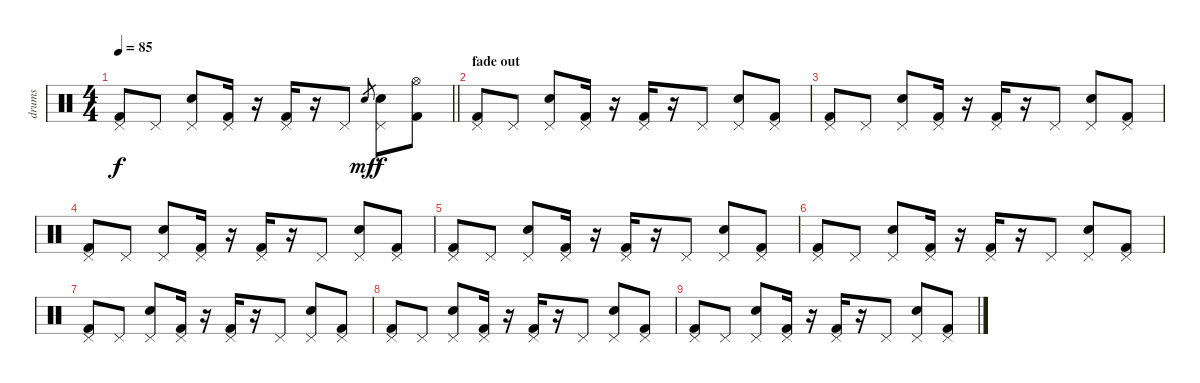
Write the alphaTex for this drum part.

\track ("drums" "drums") {instrument percussion}
\staff {score}
\articulation defaults
\ts (4 4)
\tempo 85
\clef neutral
\barLineRight lightlight
\ks c
("Kick (hit) 2" "Pedal Hi-Hat (hit)").8{dy f} "Pedal Hi-Hat (hit)".8 ("Electric Snare (hit)" "Pedal Hi-Hat (hit)").8 ("Kick (hit) 2" "Pedal Hi-Hat (hit)").16 r.16 ("Kick (hit) 2" "Pedal Hi-Hat (hit)").16 r.16 "Pedal Hi-Hat (hit)".8 "Electric Snare (hit)".8{gr dy mf} ("Electric Snare (hit)" "Pedal Hi-Hat (hit)").8{dy f} ("Kick (hit) 2" "Hi-Hat (open)").8 |
\section ("" "fade out")
("Kick (hit) 2" "Pedal Hi-Hat (hit)").8 "Pedal Hi-Hat (hit)".8 ("Electric Snare (hit)" "Pedal Hi-Hat (hit)").8 ("Kick (hit) 2" "Pedal Hi-Hat (hit)").16 r.16 ("Kick (hit) 2" "Pedal Hi-Hat (hit)").16 r.16 "Pedal Hi-Hat (hit)".8 ("Electric Snare (hit)" "Pedal Hi-Hat (hit)").8 ("Kick (hit) 2" "Pedal Hi-Hat (hit)").8 |
("Kick (hit) 2" "Pedal Hi-Hat (hit)").8 "Pedal Hi-Hat (hit)".8 ("Electric Snare (hit)" "Pedal Hi-Hat (hit)").8 ("Kick (hit) 2" "Pedal Hi-Hat (hit)").16 r.16 ("Kick (hit) 2" "Pedal Hi-Hat (hit)").16 r.16 "Pedal Hi-Hat (hit)".8 ("Electric Snare (hit)" "Pedal Hi-Hat (hit)").8 ("Kick (hit) 2" "Pedal Hi-Hat (hit)").8 |
("Kick (hit) 2" "Pedal Hi-Hat (hit)").8 "Pedal Hi-Hat (hit)".8 ("Electric Snare (hit)" "Pedal Hi-Hat (hit)").8 ("Kick (hit) 2" "Pedal Hi-Hat (hit)").16 r.16 ("Kick (hit) 2" "Pedal Hi-Hat (hit)").16 r.16 "Pedal Hi-Hat (hit)".8 ("Electric Snare (hit)" "Pedal Hi-Hat (hit)").8 ("Kick (hit) 2" "Pedal Hi-Hat (hit)").8 |
("Kick (hit) 2" "Pedal Hi-Hat (hit)").8 "Pedal Hi-Hat (hit)".8 ("Electric Snare (hit)" "Pedal Hi-Hat (hit)").8 ("Kick (hit) 2" "Pedal Hi-Hat (hit)").16 r.16 ("Kick (hit) 2" "Pedal Hi-Hat (hit)").16 r.16 "Pedal Hi-Hat (hit)".8 ("Electric Snare (hit)" "Pedal Hi-Hat (hit)").8 ("Kick (hit) 2" "Pedal Hi-Hat (hit)").8 |
("Kick (hit) 2" "Pedal Hi-Hat (hit)").8 "Pedal Hi-Hat (hit)".8 ("Electric Snare (hit)" "Pedal Hi-Hat (hit)").8 ("Kick (hit) 2" "Pedal Hi-Hat (hit)").16 r.16 ("Kick (hit) 2" "Pedal Hi-Hat (hit)").16 r.16 "Pedal Hi-Hat (hit)".8 ("Electric Snare (hit)" "Pedal Hi-Hat (hit)").8 ("Kick (hit) 2" "Pedal Hi-Hat (hit)").8 |
("Kick (hit) 2" "Pedal Hi-Hat (hit)").8 "Pedal Hi-Hat (hit)".8 ("Electric Snare (hit)" "Pedal Hi-Hat (hit)").8 ("Kick (hit) 2" "Pedal Hi-Hat (hit)").16 r.16 ("Kick (hit) 2" "Pedal Hi-Hat (hit)").16 r.16 "Pedal Hi-Hat (hit)".8 ("Electric Snare (hit)" "Pedal Hi-Hat (hit)").8 ("Kick (hit) 2" "Pedal Hi-Hat (hit)").8 |
("Kick (hit) 2" "Pedal Hi-Hat (hit)").8 "Pedal Hi-Hat (hit)".8 ("Electric Snare (hit)" "Pedal Hi-Hat (hit)").8 ("Kick (hit) 2" "Pedal Hi-Hat (hit)").16 r.16 ("Kick (hit) 2" "Pedal Hi-Hat (hit)").16 r.16 "Pedal Hi-Hat (hit)".8 ("Electric Snare (hit)" "Pedal Hi-Hat (hit)").8 ("Kick (hit) 2" "Pedal Hi-Hat (hit)").8 |
("Kick (hit) 2" "Pedal Hi-Hat (hit)").8 "Pedal Hi-Hat (hit)".8 ("Electric Snare (hit)" "Pedal Hi-Hat (hit)").8 ("Kick (hit) 2" "Pedal Hi-Hat (hit)").16 r.16 ("Kick (hit) 2" "Pedal Hi-Hat (hit)").16 r.16 "Pedal Hi-Hat (hit)".8 ("Electric Snare (hit)" "Pedal Hi-Hat (hit)").8 ("Kick (hit) 2" "Pedal Hi-Hat (hit)").8
